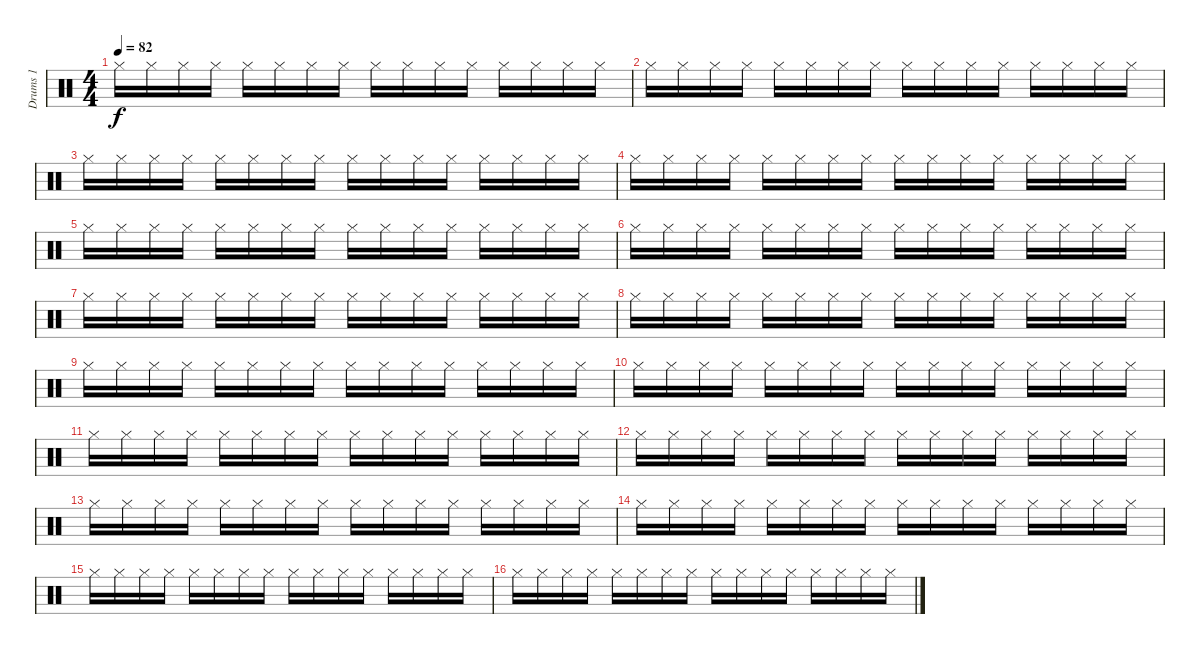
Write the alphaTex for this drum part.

\track ("Drums 1" "Drums 1") {instrument percussion}
\staff {score}
\articulation defaults
\ts (4 4)
\tempo 82
\clef neutral
\ks c "Hi-Hat (closed)".16{dy f} "Hi-Hat (closed)".16 "Hi-Hat (closed)".16 "Hi-Hat (closed)".16 "Hi-Hat (closed)".16 "Hi-Hat (closed)".16 "Hi-Hat (closed)".16 "Hi-Hat (closed)".16 "Hi-Hat (closed)".16 "Hi-Hat (closed)".16 "Hi-Hat (closed)".16 "Hi-Hat (closed)".16 "Hi-Hat (closed)".16 "Hi-Hat (closed)".16 "Hi-Hat (closed)".16 "Hi-Hat (closed)".16
|
"Hi-Hat (closed)".16 "Hi-Hat (closed)".16 "Hi-Hat (closed)".16 "Hi-Hat (closed)".16 "Hi-Hat (closed)".16 "Hi-Hat (closed)".16 "Hi-Hat (closed)".16 "Hi-Hat (closed)".16 "Hi-Hat (closed)".16 "Hi-Hat (closed)".16 "Hi-Hat (closed)".16 "Hi-Hat (closed)".16 "Hi-Hat (closed)".16 "Hi-Hat (closed)".16 "Hi-Hat (closed)".16 "Hi-Hat (closed)".16 |
"Hi-Hat (closed)".16 "Hi-Hat (closed)".16 "Hi-Hat (closed)".16 "Hi-Hat (closed)".16 "Hi-Hat (closed)".16 "Hi-Hat (closed)".16 "Hi-Hat (closed)".16 "Hi-Hat (closed)".16 "Hi-Hat (closed)".16 "Hi-Hat (closed)".16 "Hi-Hat (closed)".16 "Hi-Hat (closed)".16 "Hi-Hat (closed)".16 "Hi-Hat (closed)".16 "Hi-Hat (closed)".16 "Hi-Hat (closed)".16 |
"Hi-Hat (closed)".16 "Hi-Hat (closed)".16 "Hi-Hat (closed)".16 "Hi-Hat (closed)".16 "Hi-Hat (closed)".16 "Hi-Hat (closed)".16 "Hi-Hat (closed)".16 "Hi-Hat (closed)".16 "Hi-Hat (closed)".16 "Hi-Hat (closed)".16 "Hi-Hat (closed)".16 "Hi-Hat (closed)".16 "Hi-Hat (closed)".16 "Hi-Hat (closed)".16 "Hi-Hat (closed)".16 "Hi-Hat (closed)".16 |
"Hi-Hat (closed)".16 "Hi-Hat (closed)".16 "Hi-Hat (closed)".16 "Hi-Hat (closed)".16 "Hi-Hat (closed)".16 "Hi-Hat (closed)".16 "Hi-Hat (closed)".16 "Hi-Hat (closed)".16 "Hi-Hat (closed)".16 "Hi-Hat (closed)".16 "Hi-Hat (closed)".16 "Hi-Hat (closed)".16 "Hi-Hat (closed)".16 "Hi-Hat (closed)".16 "Hi-Hat (closed)".16 "Hi-Hat (closed)".16 |
"Hi-Hat (closed)".16 "Hi-Hat (closed)".16 "Hi-Hat (closed)".16 "Hi-Hat (closed)".16 "Hi-Hat (closed)".16 "Hi-Hat (closed)".16 "Hi-Hat (closed)".16 "Hi-Hat (closed)".16 "Hi-Hat (closed)".16 "Hi-Hat (closed)".16 "Hi-Hat (closed)".16 "Hi-Hat (closed)".16 "Hi-Hat (closed)".16 "Hi-Hat (closed)".16 "Hi-Hat (closed)".16 "Hi-Hat (closed)".16 |
"Hi-Hat (closed)".16 "Hi-Hat (closed)".16 "Hi-Hat (closed)".16 "Hi-Hat (closed)".16 "Hi-Hat (closed)".16 "Hi-Hat (closed)".16 "Hi-Hat (closed)".16 "Hi-Hat (closed)".16 "Hi-Hat (closed)".16 "Hi-Hat (closed)".16 "Hi-Hat (closed)".16 "Hi-Hat (closed)".16 "Hi-Hat (closed)".16 "Hi-Hat (closed)".16 "Hi-Hat (closed)".16 "Hi-Hat (closed)".16 |
"Hi-Hat (closed)".16 "Hi-Hat (closed)".16 "Hi-Hat (closed)".16 "Hi-Hat (closed)".16 "Hi-Hat (closed)".16 "Hi-Hat (closed)".16 "Hi-Hat (closed)".16 "Hi-Hat (closed)".16 "Hi-Hat (closed)".16 "Hi-Hat (closed)".16 "Hi-Hat (closed)".16 "Hi-Hat (closed)".16 "Hi-Hat (closed)".16 "Hi-Hat (closed)".16 "Hi-Hat (closed)".16 "Hi-Hat (closed)".16 |
"Hi-Hat (closed)".16 "Hi-Hat (closed)".16 "Hi-Hat (closed)".16 "Hi-Hat (closed)".16 "Hi-Hat (closed)".16 "Hi-Hat (closed)".16 "Hi-Hat (closed)".16 "Hi-Hat (closed)".16 "Hi-Hat (closed)".16 "Hi-Hat (closed)".16 "Hi-Hat (closed)".16 "Hi-Hat (closed)".16 "Hi-Hat (closed)".16 "Hi-Hat (closed)".16 "Hi-Hat (closed)".16 "Hi-Hat (closed)".16 |
"Hi-Hat (closed)".16 "Hi-Hat (closed)".16 "Hi-Hat (closed)".16 "Hi-Hat (closed)".16 "Hi-Hat (closed)".16 "Hi-Hat (closed)".16 "Hi-Hat (closed)".16 "Hi-Hat (closed)".16 "Hi-Hat (closed)".16 "Hi-Hat (closed)".16 "Hi-Hat (closed)".16 "Hi-Hat (closed)".16 "Hi-Hat (closed)".16 "Hi-Hat (closed)".16 "Hi-Hat (closed)".16 "Hi-Hat (closed)".16 |
"Hi-Hat (closed)".16 "Hi-Hat (closed)".16 "Hi-Hat (closed)".16 "Hi-Hat (closed)".16 "Hi-Hat (closed)".16 "Hi-Hat (closed)".16 "Hi-Hat (closed)".16 "Hi-Hat (closed)".16 "Hi-Hat (closed)".16 "Hi-Hat (closed)".16 "Hi-Hat (closed)".16 "Hi-Hat (closed)".16 "Hi-Hat (closed)".16 "Hi-Hat (closed)".16 "Hi-Hat (closed)".16 "Hi-Hat (closed)".16 |
"Hi-Hat (closed)".16 "Hi-Hat (closed)".16 "Hi-Hat (closed)".16 "Hi-Hat (closed)".16 "Hi-Hat (closed)".16 "Hi-Hat (closed)".16 "Hi-Hat (closed)".16 "Hi-Hat (closed)".16 "Hi-Hat (closed)".16 "Hi-Hat (closed)".16 "Hi-Hat (closed)".16 "Hi-Hat (closed)".16 "Hi-Hat (closed)".16 "Hi-Hat (closed)".16 "Hi-Hat (closed)".16 "Hi-Hat (closed)".16 |
"Hi-Hat (closed)".16 "Hi-Hat (closed)".16 "Hi-Hat (closed)".16 "Hi-Hat (closed)".16 "Hi-Hat (closed)".16 "Hi-Hat (closed)".16 "Hi-Hat (closed)".16 "Hi-Hat (closed)".16 "Hi-Hat (closed)".16 "Hi-Hat (closed)".16 "Hi-Hat (closed)".16 "Hi-Hat (closed)".16 "Hi-Hat (closed)".16 "Hi-Hat (closed)".16 "Hi-Hat (closed)".16 "Hi-Hat (closed)".16 |
"Hi-Hat (closed)".16 "Hi-Hat (closed)".16 "Hi-Hat (closed)".16 "Hi-Hat (closed)".16 "Hi-Hat (closed)".16 "Hi-Hat (closed)".16 "Hi-Hat (closed)".16 "Hi-Hat (closed)".16 "Hi-Hat (closed)".16 "Hi-Hat (closed)".16 "Hi-Hat (closed)".16 "Hi-Hat (closed)".16 "Hi-Hat (closed)".16 "Hi-Hat (closed)".16 "Hi-Hat (closed)".16 "Hi-Hat (closed)".16 |
"Hi-Hat (closed)".16 "Hi-Hat (closed)".16 "Hi-Hat (closed)".16 "Hi-Hat (closed)".16 "Hi-Hat (closed)".16 "Hi-Hat (closed)".16 "Hi-Hat (closed)".16 "Hi-Hat (closed)".16 "Hi-Hat (closed)".16 "Hi-Hat (closed)".16 "Hi-Hat (closed)".16 "Hi-Hat (closed)".16 "Hi-Hat (closed)".16 "Hi-Hat (closed)".16 "Hi-Hat (closed)".16 "Hi-Hat (closed)".16 |
"Hi-Hat (closed)".16 "Hi-Hat (closed)".16 "Hi-Hat (closed)".16 "Hi-Hat (closed)".16 "Hi-Hat (closed)".16 "Hi-Hat (closed)".16 "Hi-Hat (closed)".16 "Hi-Hat (closed)".16 "Hi-Hat (closed)".16 "Hi-Hat (closed)".16 "Hi-Hat (closed)".16 "Hi-Hat (closed)".16 "Hi-Hat (closed)".16 "Hi-Hat (closed)".16 "Hi-Hat (closed)".16 "Hi-Hat (closed)".16
